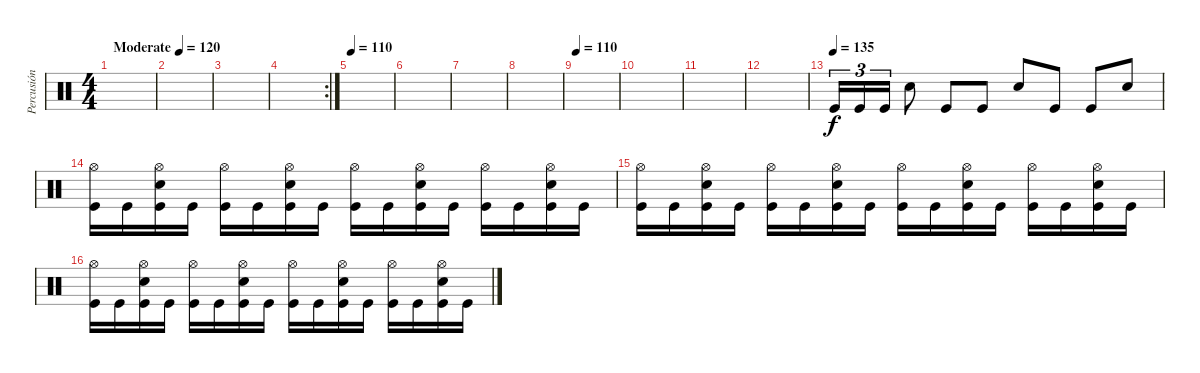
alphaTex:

\track ("Percusión" "Percusión") {instrument percussion}
\staff {score}
\articulation defaults
\ts (4 4)
\tempo (120 "Moderate")
\tempo 110
\tempo (120 "Moderate")
\clef neutral
\ks c
|
|
|
\rc 2
|
\tempo 110
|
|
|
|
\tempo 110
|
|
|
|
\tempo (135)
"Kick (hit)".16{tu (3 2)} "Kick (hit)".16{tu (3 2)} "Kick (hit)".16{tu (3 2)} "Snare (hit) 2".8 "Kick (hit)".8 "Kick (hit)".8 "Snare (hit) 2".8 "Kick (hit)".8 "Kick (hit)".8 "Snare (hit) 2".8 |
("Hi-Hat (open)" "Kick (hit)").16 "Kick (hit)".16 ("Hi-Hat (open)" "Snare (hit) 2" "Kick (hit)").16 "Kick (hit)".16 ("Hi-Hat (open)" "Kick (hit)").16 "Kick (hit)".16 ("Hi-Hat (open)" "Snare (hit) 2" "Kick (hit)").16 "Kick (hit)".16 ("Hi-Hat (open)" "Kick (hit)").16 "Kick (hit)".16 ("Hi-Hat (open)" "Snare (hit) 2" "Kick (hit)").16 "Kick (hit)".16 ("Hi-Hat (open)" "Kick (hit)").16 "Kick (hit)".16 ("Hi-Hat (open)" "Snare (hit) 2" "Kick (hit)").16 "Kick (hit)".16 |
("Hi-Hat (open)" "Kick (hit)").16 "Kick (hit)".16 ("Hi-Hat (open)" "Snare (hit) 2" "Kick (hit)").16 "Kick (hit)".16 ("Hi-Hat (open)" "Kick (hit)").16 "Kick (hit)".16 ("Hi-Hat (open)" "Snare (hit) 2" "Kick (hit)").16 "Kick (hit)".16 ("Hi-Hat (open)" "Kick (hit)").16 "Kick (hit)".16 ("Hi-Hat (open)" "Snare (hit) 2" "Kick (hit)").16 "Kick (hit)".16 ("Hi-Hat (open)" "Kick (hit)").16 "Kick (hit)".16 ("Hi-Hat (open)" "Snare (hit) 2" "Kick (hit)").16 "Kick (hit)".16 |
("Hi-Hat (open)" "Kick (hit)").16 "Kick (hit)".16 ("Hi-Hat (open)" "Snare (hit) 2" "Kick (hit)").16 "Kick (hit)".16 ("Hi-Hat (open)" "Kick (hit)").16 "Kick (hit)".16 ("Hi-Hat (open)" "Snare (hit) 2" "Kick (hit)").16 "Kick (hit)".16 ("Hi-Hat (open)" "Kick (hit)").16 "Kick (hit)".16 ("Hi-Hat (open)" "Snare (hit) 2" "Kick (hit)").16 "Kick (hit)".16 ("Hi-Hat (open)" "Kick (hit)").16 "Kick (hit)".16 ("Hi-Hat (open)" "Snare (hit) 2" "Kick (hit)").16 "Kick (hit)".16
